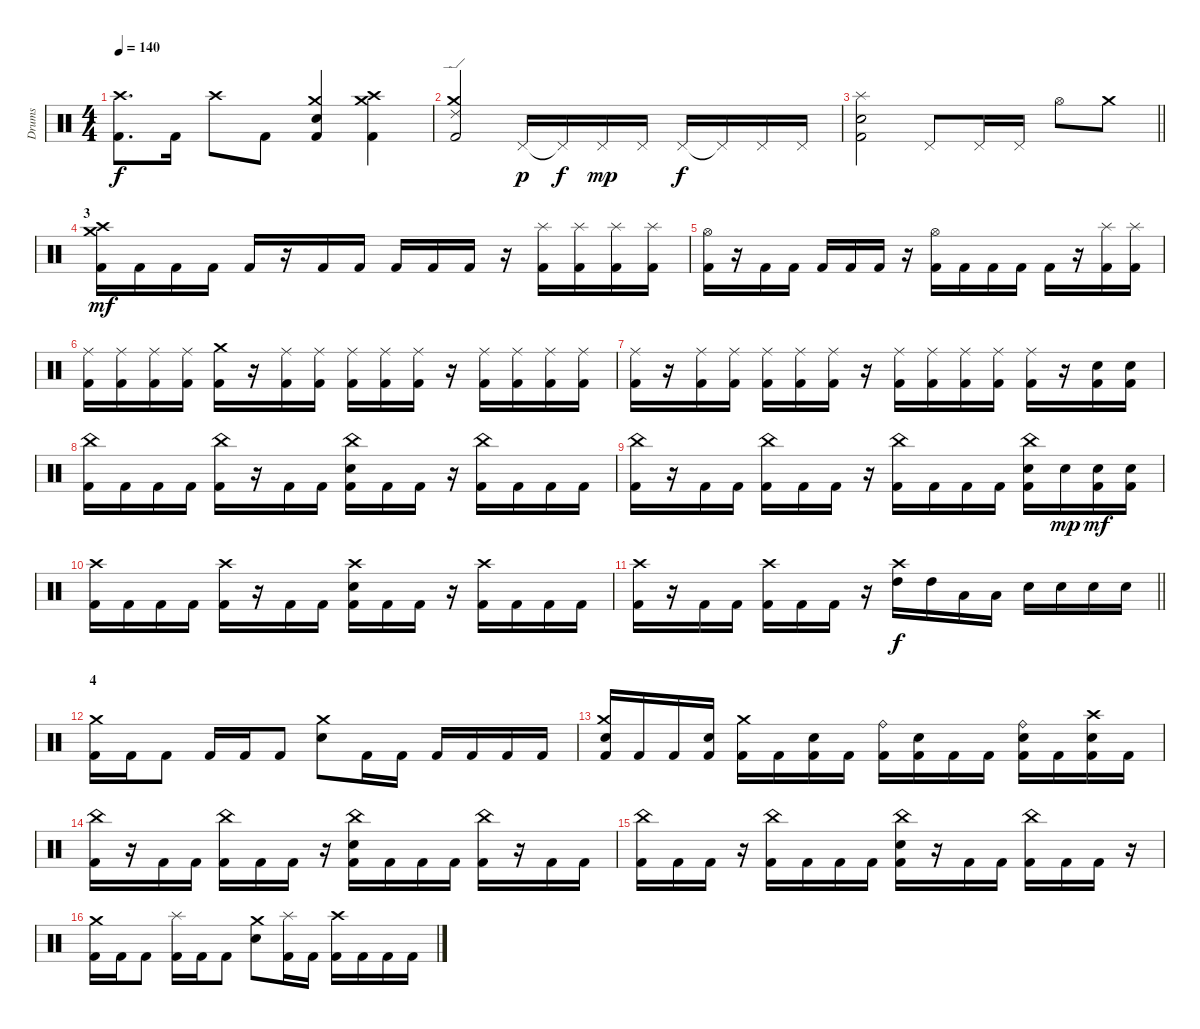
\track ("Drums" "Drums") {instrument percussion}
\staff {score}
\articulation defaults
\ts (4 4)
\tempo 140
\clef neutral
\ks c
("Crash high (hit)" "Kick (hit) 2").8{d dy f} "Kick (hit) 2".16 "Crash high (hit)".8 "Kick (hit) 2".8 ("Crash medium (hit)" "Electric Snare (hit)" "Kick (hit) 2").4 ("Crash high (hit)" "Crash medium (hit)" "Kick (hit) 2").4 |
("Ride (edge) 2" "Crash medium (hit)" "Kick (hit) 2").2 "Pedal Hi-Hat (hit)".16{dy p} "Pedal Hi-Hat (hit)"{t}.16{dy f} "Pedal Hi-Hat (hit)".16{dy mp} "Pedal Hi-Hat (hit)".16 "Pedal Hi-Hat (hit)".16{dy f} "Pedal Hi-Hat (hit)"{t}.16 "Pedal Hi-Hat (hit)".16 "Pedal Hi-Hat (hit)".16 |
\barLineRight lightlight
("Splash (hit)" "Electric Snare (hit)" "Kick (hit) 2").2 "Pedal Hi-Hat (hit)".8 "Pedal Hi-Hat (hit)".16 "Pedal Hi-Hat (hit)".16 "Hi-Hat (open)".8 "Crash medium (hit)".8 |
\section ("" "3")
("Crash medium (hit)" "Crash high (hit)" "Kick (hit) 2").16{dy mf} "Kick (hit) 2".16 "Kick (hit) 2".16 "Kick (hit) 2".16 "Kick (hit) 2".16 r.16 "Kick (hit) 2".16 "Kick (hit) 2".16 "Kick (hit) 2".16 "Kick (hit) 2".16 "Kick (hit) 2".16 r.16 ("Splash (hit)" "Kick (hit) 2").16 ("Splash (hit)" "Kick (hit) 2").16 ("Splash (hit)" "Kick (hit) 2").16 ("Splash (hit)" "Kick (hit) 2").16 |
("Hi-Hat (open)" "Kick (hit) 2").16 r.16 "Kick (hit) 2".16 "Kick (hit) 2".16 "Kick (hit) 2".16 "Kick (hit) 2".16 "Kick (hit) 2".16 r.16 ("Hi-Hat (open)" "Kick (hit) 2").16 "Kick (hit) 2".16 "Kick (hit) 2".16 "Kick (hit) 2".16 "Kick (hit) 2".16 r.16 ("Splash (hit)" "Kick (hit) 2").16 ("Splash (hit)" "Kick (hit) 2").16 |
("Ride (middle)" "Kick (hit) 2").16 ("Ride (middle)" "Kick (hit) 2").16 ("Ride (middle)" "Kick (hit) 2").16 ("Ride (middle)" "Kick (hit) 2").16 ("Crash medium (hit)" "Kick (hit) 2").16 r.16 ("Ride (middle)" "Kick (hit) 2").16 ("Ride (middle)" "Kick (hit) 2").16 ("Ride (middle)" "Kick (hit) 2").16 ("Ride (middle)" "Kick (hit) 2").16 ("Ride (middle)" "Kick (hit) 2").16 r.16 ("Ride (middle)" "Kick (hit) 2").16 ("Ride (middle)" "Kick (hit) 2").16 ("Ride (middle)" "Kick (hit) 2").16 ("Ride (middle)" "Kick (hit) 2").16 |
("Ride (middle)" "Kick (hit) 2").16 r.16 ("Ride (middle)" "Kick (hit) 2").16 ("Ride (middle)" "Kick (hit) 2").16 ("Ride (middle)" "Kick (hit) 2").16 ("Ride (middle)" "Kick (hit) 2").16 ("Ride (middle)" "Kick (hit) 2").16 r.16 ("Ride (middle)" "Kick (hit) 2").16 ("Ride (middle)" "Kick (hit) 2").16 ("Ride (middle)" "Kick (hit) 2").16 ("Ride (middle)" "Kick (hit) 2").16 ("Ride (middle)" "Kick (hit) 2").16 r.16 ("Electric Snare (hit)" "Kick (hit) 2").16 ("Electric Snare (hit)" "Kick (hit) 2").16 |
("China (hit)" "Kick (hit) 2").16 "Kick (hit) 2".16 "Kick (hit) 2".16 "Kick (hit) 2".16 ("China (hit)" "Kick (hit) 2").16 r.16 "Kick (hit) 2".16 "Kick (hit) 2".16 ("China (hit)" "Electric Snare (hit)" "Kick (hit) 2").16 "Kick (hit) 2".16 "Kick (hit) 2".16 r.16 ("China (hit)" "Kick (hit) 2").16 "Kick (hit) 2".16 "Kick (hit) 2".16 "Kick (hit) 2".16 |
("China (hit)" "Kick (hit) 2").16 r.16 "Kick (hit) 2".16 "Kick (hit) 2".16 ("China (hit)" "Kick (hit) 2").16 "Kick (hit) 2".16 "Kick (hit) 2".16 r.16 ("China (hit)" "Kick (hit) 2").16 "Kick (hit) 2".16 "Kick (hit) 2".16 "Kick (hit) 2".16 ("China (hit)" "Electric Snare (hit)" "Kick (hit) 2").16 "Electric Snare (hit)".16{dy mp} ("Electric Snare (hit)" "Kick (hit) 2").16{dy mf} ("Electric Snare (hit)" "Kick (hit) 2").16 |
("Crash high (hit)" "Kick (hit) 2").16 "Kick (hit) 2".16 "Kick (hit) 2".16 "Kick (hit) 2".16 ("Crash high (hit)" "Kick (hit) 2").16 r.16 "Kick (hit) 2".16 "Kick (hit) 2".16 ("Crash high (hit)" "Electric Snare (hit)" "Kick (hit) 2").16 "Kick (hit) 2".16 "Kick (hit) 2".16 r.16 ("Crash high (hit)" "Kick (hit) 2").16 "Kick (hit) 2".16 "Kick (hit) 2".16 "Kick (hit) 2".16 |
\barLineRight lightlight
("Crash high (hit)" "Kick (hit) 2").16 r.16 "Kick (hit) 2".16 "Kick (hit) 2".16 ("Crash high (hit)" "Kick (hit) 2").16 "Kick (hit) 2".16 "Kick (hit) 2".16 r.16 ("Crash high (hit)" "High Tom (hit)").16{dy f} "High Tom (hit)".16 "Low Tom (hit)".16 "Low Tom (hit)".16 "Electric Snare (hit)".16 "Electric Snare (hit)".16 "Electric Snare (hit)".16 "Electric Snare (hit)".16 |
\section ("" "4")
("Crash medium (hit)" "Kick (hit) 2").16 "Kick (hit) 2".16 "Kick (hit) 2".8 "Kick (hit) 2".16 "Kick (hit) 2".16 "Kick (hit) 2".8 ("Crash medium (hit)" "Electric Snare (hit)").8 "Kick (hit) 2".16 "Kick (hit) 2".16 "Kick (hit) 2".16 "Kick (hit) 2".16 "Kick (hit) 2".16 "Kick (hit) 2".16 |
("Crash medium (hit)" "Electric Snare (hit)" "Kick (hit) 2").16 "Kick (hit) 2".16 "Kick (hit) 2".16 ("Electric Snare (hit)" "Kick (hit) 2").16 ("Crash medium (hit)" "Kick (hit) 2").16 "Kick (hit) 2".16 ("Electric Snare (hit)" "Kick (hit) 2").16 "Kick (hit) 2".16 ("Ride (bell)" "Kick (hit) 2").16 ("Electric Snare (hit)" "Kick (hit) 2").16 "Kick (hit) 2".16 "Kick (hit) 2".16 ("Ride (bell)" "Electric Snare (hit)" "Kick (hit) 2").16 "Kick (hit) 2".16 ("Crash high (hit)" "Electric Snare (hit)" "Kick (hit) 2").16 "Kick (hit) 2".16 |
("Kick (hit) 2" "China (hit)").16 r.16 "Kick (hit) 2".16 "Kick (hit) 2".16 ("China (hit)" "Kick (hit) 2").16 "Kick (hit) 2".16 "Kick (hit) 2".16 r.16 ("Electric Snare (hit)" "China (hit)" "Kick (hit) 2").16 "Kick (hit) 2".16 "Kick (hit) 2".16 "Kick (hit) 2".16 ("China (hit)" "Kick (hit) 2").16 r.16 "Kick (hit) 2".16 "Kick (hit) 2".16 |
("Kick (hit) 2" "China (hit)").16 "Kick (hit) 2".16 "Kick (hit) 2".16 r.16 ("China (hit)" "Kick (hit) 2").16 "Kick (hit) 2".16 "Kick (hit) 2".16 "Kick (hit) 2".16 ("China (hit)" "Electric Snare (hit)" "Kick (hit) 2").16 r.16 "Kick (hit) 2".16 "Kick (hit) 2".16 ("China (hit)" "Kick (hit) 2").16 "Kick (hit) 2".16 "Kick (hit) 2".16 r.16 |
("Crash medium (hit)" "Kick (hit) 2").16 "Kick (hit) 2".16 "Kick (hit) 2".8 ("Splash (hit)" "Kick (hit) 2").16 "Kick (hit) 2".16 "Kick (hit) 2".8 ("Crash medium (hit)" "Electric Snare (hit)").8 ("Splash (hit)" "Kick (hit) 2").16 "Kick (hit) 2".16 ("Crash high (hit)" "Kick (hit) 2").16 "Kick (hit) 2".16 "Kick (hit) 2".16 "Kick (hit) 2".16
